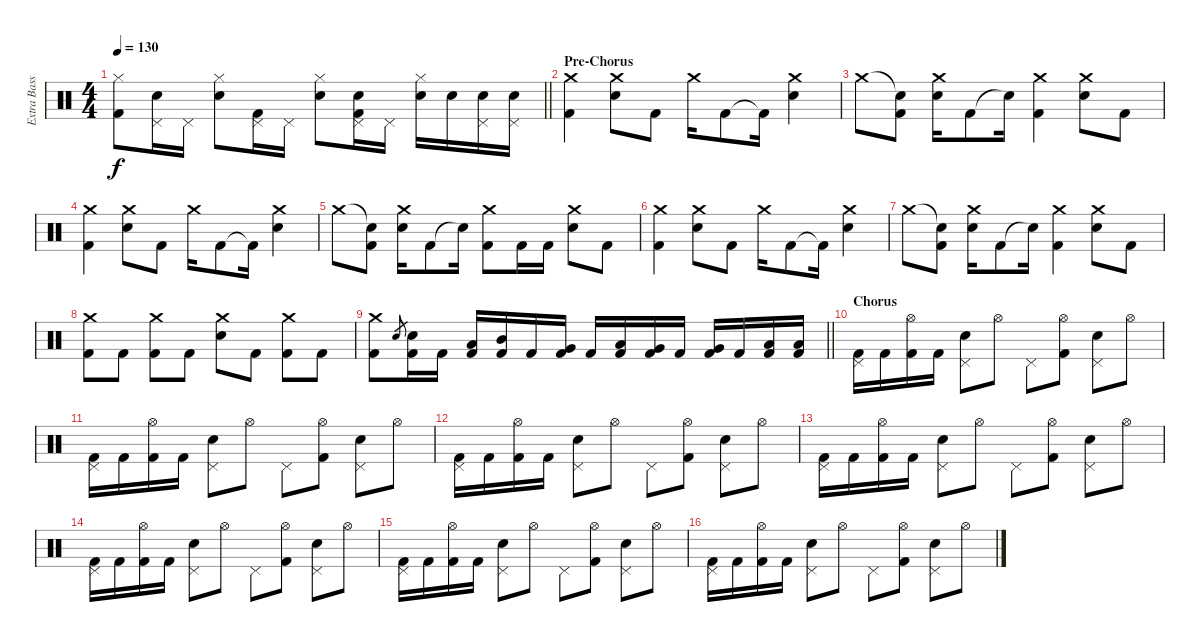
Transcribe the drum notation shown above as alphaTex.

\track ("Extra BassDrum" "Extra Bass") {instrument percussion}
\staff {score}
\articulation defaults
\ts (4 4)
\tempo 130
\clef neutral
\barLineRight lightlight
\ks c
("Hi-Hat (closed)" "Kick (hit) 2").8{dy f} ("Pedal Hi-Hat (hit)" "Snare (hit) 2").16 "Pedal Hi-Hat (hit)".16 ("Hi-Hat (closed)" "Snare (hit) 2").8 ("Pedal Hi-Hat (hit)" "Kick (hit) 2").16 "Pedal Hi-Hat (hit)".16 ("Hi-Hat (closed)" "Snare (hit) 2").8 ("Pedal Hi-Hat (hit)" "Snare (hit) 2" "Kick (hit) 2").16 "Pedal Hi-Hat (hit)".16 ("Hi-Hat (closed)" "Snare (hit) 2").16 "Snare (hit) 2".16 ("Pedal Hi-Hat (hit)" "Snare (hit) 2").16 ("Pedal Hi-Hat (hit)" "Snare (hit) 2").16 |
\section ("" "Pre-Chorus")
("Crash medium (hit)" "Kick (hit) 2").4 ("Crash medium (hit)" "Snare (hit) 2").8 "Kick (hit) 2".8 "Crash medium (hit)".16 "Kick (hit) 2".8 "Kick (hit) 2"{t}.16 ("Crash medium (hit)" "Snare (hit) 2").4 |
"Crash medium (hit)".8 ("Snare (hit)"{t} "Kick (hit) 2").8 ("Crash medium (hit)" "Snare (hit) 2").16 "Kick (hit) 2".8 "Snare (hit)"{t}.16 ("Crash medium (hit)" "Kick (hit) 2").4 ("Crash medium (hit)" "Snare (hit) 2").8 "Kick (hit) 2".8 |
("Crash medium (hit)" "Kick (hit) 2").4 ("Crash medium (hit)" "Snare (hit) 2").8 "Kick (hit) 2".8 "Crash medium (hit)".16 "Kick (hit) 2".8 "Kick (hit) 2"{t}.16 ("Crash medium (hit)" "Snare (hit) 2").4 |
"Crash medium (hit)".8 ("Snare (hit)"{t} "Kick (hit) 2").8 ("Crash medium (hit)" "Snare (hit) 2").16 "Kick (hit) 2".8 "Snare (hit)"{t}.16 ("Crash medium (hit)" "Kick (hit) 2").8 "Kick (hit) 2".16 "Kick (hit) 2".16 ("Crash medium (hit)" "Snare (hit) 2").8 "Kick (hit) 2".8 |
("Crash medium (hit)" "Kick (hit) 2").4 ("Crash medium (hit)" "Snare (hit) 2").8 "Kick (hit) 2".8 "Crash medium (hit)".16 "Kick (hit) 2".8 "Kick (hit) 2"{t}.16 ("Crash medium (hit)" "Snare (hit) 2").4 |
"Crash medium (hit)".8 ("Snare (hit)"{t} "Kick (hit) 2").8 ("Crash medium (hit)" "Snare (hit) 2").16 "Kick (hit) 2".8 "Snare (hit)"{t}.16 ("Crash medium (hit)" "Kick (hit) 2").4 ("Crash medium (hit)" "Snare (hit) 2").8 "Kick (hit) 2".8 |
("Crash medium (hit)" "Kick (hit) 2").8 "Kick (hit) 2".8 ("Crash medium (hit)" "Kick (hit) 2").8 "Kick (hit) 2".8 ("Crash medium (hit)" "Snare (hit) 2").8 "Kick (hit) 2".8 ("Crash medium (hit)" "Kick (hit) 2").8 "Kick (hit) 2".8 |
\barLineRight lightlight
("Crash medium (hit)" "Kick (hit) 2").8 "Snare (hit) 2".8{gr} ("Snare (hit) 2" "Kick (hit) 2").16 "Kick (hit) 2".16 ("Low Tom (hit)" "Kick (hit) 2").16 ("Mid Tom (hit)" "Kick (hit) 2").16 "Kick (hit) 2".16 ("Very Low Tom (hit)" "Kick (hit) 2").16 "Kick (hit) 2".16 ("Low Floor Tom (hit)" "Kick (hit) 2").16 ("Very Low Tom (hit)" "Kick (hit) 2").16 "Kick (hit) 2".16 ("Very Low Tom (hit)" "Kick (hit) 2").16 "Kick (hit) 2".16 ("Low Floor Tom (hit)" "Kick (hit) 2").16 ("Low Floor Tom (hit)" "Kick (hit) 2").16 |
\section ("" "Chorus")
("Pedal Hi-Hat (hit)" "Kick (hit) 2").16 "Kick (hit) 2".16 ("Hi-Hat (open)" "Kick (hit) 2").16 "Kick (hit) 2".16 ("Pedal Hi-Hat (hit)" "Snare (hit) 2").8 "Hi-Hat (open)".8 "Pedal Hi-Hat (hit)".8 ("Hi-Hat (open)" "Kick (hit) 2").8 ("Pedal Hi-Hat (hit)" "Snare (hit) 2").8 "Hi-Hat (open)".8 |
("Pedal Hi-Hat (hit)" "Kick (hit) 2").16 "Kick (hit) 2".16 ("Hi-Hat (open)" "Kick (hit) 2").16 "Kick (hit) 2".16 ("Pedal Hi-Hat (hit)" "Snare (hit) 2").8 "Hi-Hat (open)".8 "Pedal Hi-Hat (hit)".8 ("Hi-Hat (open)" "Kick (hit) 2").8 ("Pedal Hi-Hat (hit)" "Snare (hit) 2").8 "Hi-Hat (open)".8 |
("Pedal Hi-Hat (hit)" "Kick (hit) 2").16 "Kick (hit) 2".16 ("Hi-Hat (open)" "Kick (hit) 2").16 "Kick (hit) 2".16 ("Pedal Hi-Hat (hit)" "Snare (hit) 2").8 "Hi-Hat (open)".8 "Pedal Hi-Hat (hit)".8 ("Hi-Hat (open)" "Kick (hit) 2").8 ("Pedal Hi-Hat (hit)" "Snare (hit) 2").8 "Hi-Hat (open)".8 |
("Pedal Hi-Hat (hit)" "Kick (hit) 2").16 "Kick (hit) 2".16 ("Hi-Hat (open)" "Kick (hit) 2").16 "Kick (hit) 2".16 ("Pedal Hi-Hat (hit)" "Snare (hit) 2").8 "Hi-Hat (open)".8 "Pedal Hi-Hat (hit)".8 ("Hi-Hat (open)" "Kick (hit) 2").8 ("Pedal Hi-Hat (hit)" "Snare (hit) 2").8 "Hi-Hat (open)".8 |
("Pedal Hi-Hat (hit)" "Kick (hit) 2").16 "Kick (hit) 2".16 ("Hi-Hat (open)" "Kick (hit) 2").16 "Kick (hit) 2".16 ("Pedal Hi-Hat (hit)" "Snare (hit) 2").8 "Hi-Hat (open)".8 "Pedal Hi-Hat (hit)".8 ("Hi-Hat (open)" "Kick (hit) 2").8 ("Pedal Hi-Hat (hit)" "Snare (hit) 2").8 "Hi-Hat (open)".8 |
("Pedal Hi-Hat (hit)" "Kick (hit) 2").16 "Kick (hit) 2".16 ("Hi-Hat (open)" "Kick (hit) 2").16 "Kick (hit) 2".16 ("Pedal Hi-Hat (hit)" "Snare (hit) 2").8 "Hi-Hat (open)".8 "Pedal Hi-Hat (hit)".8 ("Hi-Hat (open)" "Kick (hit) 2").8 ("Pedal Hi-Hat (hit)" "Snare (hit) 2").8 "Hi-Hat (open)".8 |
("Pedal Hi-Hat (hit)" "Kick (hit) 2").16 "Kick (hit) 2".16 ("Hi-Hat (open)" "Kick (hit) 2").16 "Kick (hit) 2".16 ("Pedal Hi-Hat (hit)" "Snare (hit) 2").8 "Hi-Hat (open)".8 "Pedal Hi-Hat (hit)".8 ("Hi-Hat (open)" "Kick (hit) 2").8 ("Pedal Hi-Hat (hit)" "Snare (hit) 2").8 "Hi-Hat (open)".8
